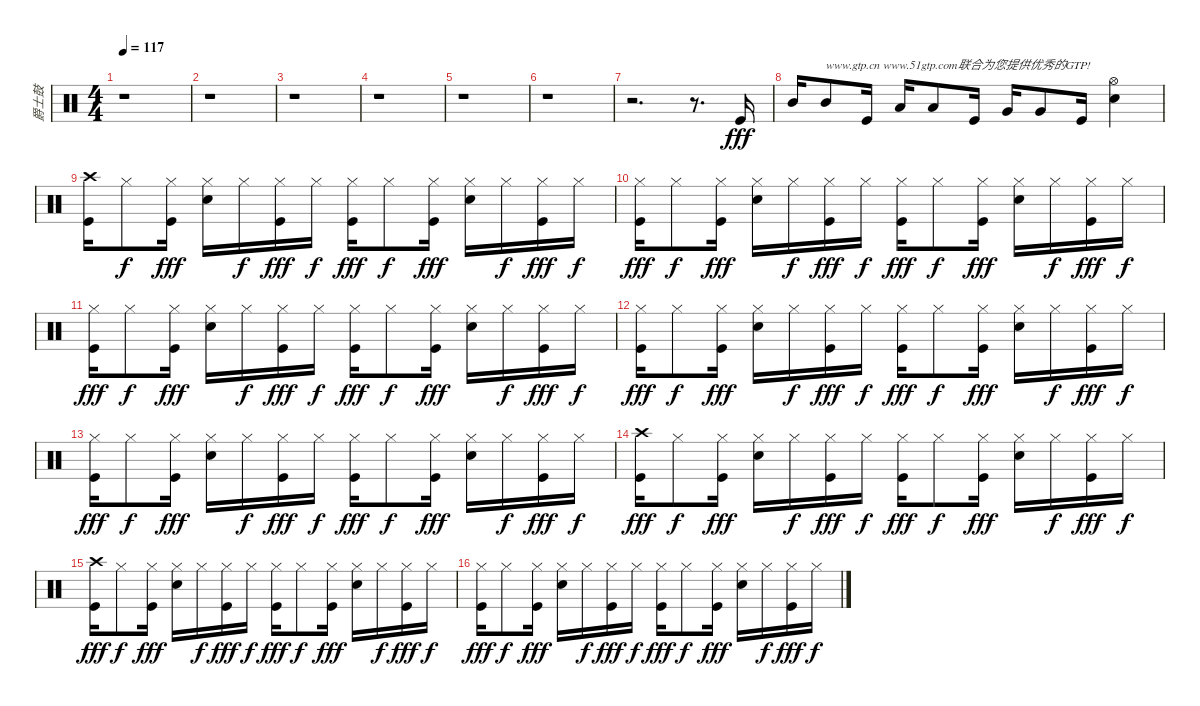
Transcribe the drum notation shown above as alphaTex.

\track ("爵士鼓" "爵士鼓") {instrument percussion}
\staff {score}
\articulation defaults
\ts (4 4)
\tempo 117
\clef neutral
\ks c
r.1{dy fff} |
r.1 |
r.1 |
r.1 |
r.1 |
r.1 |
r.2{d} r.8{d} "Kick (hit)".16 |
"Mid Tom (hit)".16 "Mid Tom (hit)".8{txt "www.gtp.cn www.51gtp.com联合为您提供优秀的GTP!"} "Kick (hit)".16 "Low Tom (hit)".16 "Low Tom (hit)".8 "Kick (hit)".16 "Very Low Tom (hit)".16 "Very Low Tom (hit)".8 "Kick (hit)".16 ("Hi-Hat (open)" "Snare (hit) 2").4 |
("Kick (hit)" "Crash high (hit)").16 "Hi-Hat (closed)".8{dy f} ("Kick (hit)" "Hi-Hat (closed)").16{dy fff} ("Snare (hit) 2" "Hi-Hat (closed)").16 "Hi-Hat (closed)".16{dy f} ("Kick (hit)" "Hi-Hat (closed)").16{dy fff} "Hi-Hat (closed)".16{dy f} ("Kick (hit)" "Hi-Hat (closed)").16{dy fff} "Hi-Hat (closed)".8{dy f} ("Kick (hit)" "Hi-Hat (closed)").16{dy fff} ("Snare (hit) 2" "Hi-Hat (closed)").16 "Hi-Hat (closed)".16{dy f} ("Kick (hit)" "Hi-Hat (closed)").16{dy fff} "Hi-Hat (closed)".16{dy f} |
("Kick (hit)" "Hi-Hat (closed)").16{dy fff} "Hi-Hat (closed)".8{dy f} ("Kick (hit)" "Hi-Hat (closed)").16{dy fff} ("Snare (hit) 2" "Hi-Hat (closed)").16 "Hi-Hat (closed)".16{dy f} ("Kick (hit)" "Hi-Hat (closed)").16{dy fff} "Hi-Hat (closed)".16{dy f} ("Kick (hit)" "Hi-Hat (closed)").16{dy fff} "Hi-Hat (closed)".8{dy f} ("Kick (hit)" "Hi-Hat (closed)").16{dy fff} ("Snare (hit) 2" "Hi-Hat (closed)").16 "Hi-Hat (closed)".16{dy f} ("Kick (hit)" "Hi-Hat (closed)").16{dy fff} "Hi-Hat (closed)".16{dy f} |
("Kick (hit)" "Hi-Hat (closed)").16{dy fff} "Hi-Hat (closed)".8{dy f} ("Kick (hit)" "Hi-Hat (closed)").16{dy fff} ("Snare (hit) 2" "Hi-Hat (closed)").16 "Hi-Hat (closed)".16{dy f} ("Kick (hit)" "Hi-Hat (closed)").16{dy fff} "Hi-Hat (closed)".16{dy f} ("Kick (hit)" "Hi-Hat (closed)").16{dy fff} "Hi-Hat (closed)".8{dy f} ("Kick (hit)" "Hi-Hat (closed)").16{dy fff} ("Snare (hit) 2" "Hi-Hat (closed)").16 "Hi-Hat (closed)".16{dy f} ("Kick (hit)" "Hi-Hat (closed)").16{dy fff} "Hi-Hat (closed)".16{dy f} |
("Kick (hit)" "Hi-Hat (closed)").16{dy fff} "Hi-Hat (closed)".8{dy f} ("Kick (hit)" "Hi-Hat (closed)").16{dy fff} ("Snare (hit) 2" "Hi-Hat (closed)").16 "Hi-Hat (closed)".16{dy f} ("Kick (hit)" "Hi-Hat (closed)").16{dy fff} "Hi-Hat (closed)".16{dy f} ("Kick (hit)" "Hi-Hat (closed)").16{dy fff} "Hi-Hat (closed)".8{dy f} ("Kick (hit)" "Hi-Hat (closed)").16{dy fff} ("Snare (hit) 2" "Hi-Hat (closed)").16 "Hi-Hat (closed)".16{dy f} ("Kick (hit)" "Hi-Hat (closed)").16{dy fff} "Hi-Hat (closed)".16{dy f} |
("Kick (hit)" "Hi-Hat (closed)").16{dy fff} "Hi-Hat (closed)".8{dy f} ("Kick (hit)" "Hi-Hat (closed)").16{dy fff} ("Snare (hit) 2" "Hi-Hat (closed)").16 "Hi-Hat (closed)".16{dy f} ("Kick (hit)" "Hi-Hat (closed)").16{dy fff} "Hi-Hat (closed)".16{dy f} ("Kick (hit)" "Hi-Hat (closed)").16{dy fff} "Hi-Hat (closed)".8{dy f} ("Kick (hit)" "Hi-Hat (closed)").16{dy fff} ("Snare (hit) 2" "Hi-Hat (closed)").16 "Hi-Hat (closed)".16{dy f} ("Kick (hit)" "Hi-Hat (closed)").16{dy fff} "Hi-Hat (closed)".16{dy f} |
("Kick (hit)" "Crash high (hit)").16{dy fff} "Hi-Hat (closed)".8{dy f} ("Kick (hit)" "Hi-Hat (closed)").16{dy fff} ("Snare (hit) 2" "Hi-Hat (closed)").16 "Hi-Hat (closed)".16{dy f} ("Kick (hit)" "Hi-Hat (closed)").16{dy fff} "Hi-Hat (closed)".16{dy f} ("Kick (hit)" "Hi-Hat (closed)").16{dy fff} "Hi-Hat (closed)".8{dy f} ("Kick (hit)" "Hi-Hat (closed)").16{dy fff} ("Snare (hit) 2" "Hi-Hat (closed)").16 "Hi-Hat (closed)".16{dy f} ("Kick (hit)" "Hi-Hat (closed)").16{dy fff} "Hi-Hat (closed)".16{dy f} |
("Kick (hit)" "Crash high (hit)").16{dy fff} "Hi-Hat (closed)".8{dy f} ("Kick (hit)" "Hi-Hat (closed)").16{dy fff} ("Snare (hit) 2" "Hi-Hat (closed)").16 "Hi-Hat (closed)".16{dy f} ("Kick (hit)" "Hi-Hat (closed)").16{dy fff} "Hi-Hat (closed)".16{dy f} ("Kick (hit)" "Hi-Hat (closed)").16{dy fff} "Hi-Hat (closed)".8{dy f} ("Kick (hit)" "Hi-Hat (closed)").16{dy fff} ("Snare (hit) 2" "Hi-Hat (closed)").16 "Hi-Hat (closed)".16{dy f} ("Kick (hit)" "Hi-Hat (closed)").16{dy fff} "Hi-Hat (closed)".16{dy f} |
("Kick (hit)" "Hi-Hat (closed)").16{dy fff} "Hi-Hat (closed)".8{dy f} ("Kick (hit)" "Hi-Hat (closed)").16{dy fff} ("Snare (hit) 2" "Hi-Hat (closed)").16 "Hi-Hat (closed)".16{dy f} ("Kick (hit)" "Hi-Hat (closed)").16{dy fff} "Hi-Hat (closed)".16{dy f} ("Kick (hit)" "Hi-Hat (closed)").16{dy fff} "Hi-Hat (closed)".8{dy f} ("Kick (hit)" "Hi-Hat (closed)").16{dy fff} ("Snare (hit) 2" "Hi-Hat (closed)").16 "Hi-Hat (closed)".16{dy f} ("Kick (hit)" "Hi-Hat (closed)").16{dy fff} "Hi-Hat (closed)".16{dy f}
